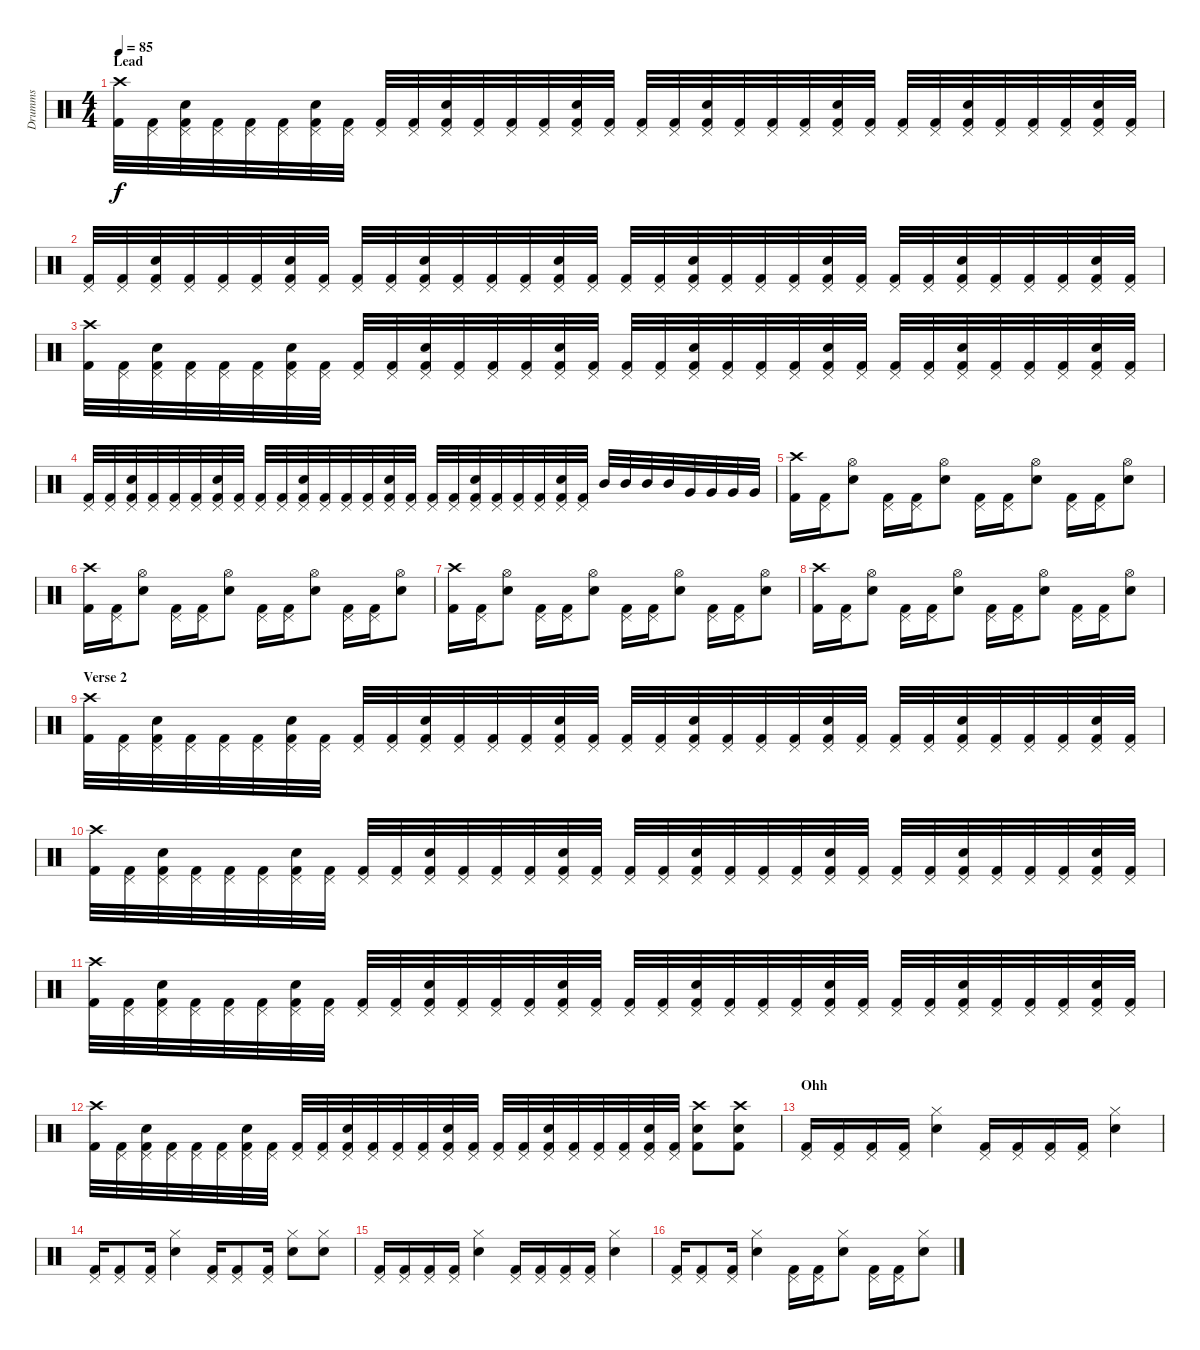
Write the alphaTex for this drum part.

\track ("Drumms" "Drumms") {instrument percussion}
\staff {score}
\articulation defaults
\ts (4 4)
\section ("" "Lead")
\tempo 85
\clef neutral
\ks c
("Crash high (hit)" "Kick (hit) 2").32{dy f} ("Pedal Hi-Hat (hit)" "Kick (hit) 2").32 ("Pedal Hi-Hat (hit)" "Snare (hit) 2" "Kick (hit) 2").32 ("Pedal Hi-Hat (hit)" "Kick (hit) 2").32 ("Pedal Hi-Hat (hit)" "Kick (hit) 2").32 ("Pedal Hi-Hat (hit)" "Kick (hit) 2").32 ("Pedal Hi-Hat (hit)" "Snare (hit) 2" "Kick (hit) 2").32 ("Pedal Hi-Hat (hit)" "Kick (hit) 2").32 ("Pedal Hi-Hat (hit)" "Kick (hit) 2").32 ("Pedal Hi-Hat (hit)" "Kick (hit) 2").32 ("Pedal Hi-Hat (hit)" "Snare (hit) 2" "Kick (hit) 2").32 ("Pedal Hi-Hat (hit)" "Kick (hit) 2").32 ("Pedal Hi-Hat (hit)" "Kick (hit) 2").32 ("Pedal Hi-Hat (hit)" "Kick (hit) 2").32 ("Pedal Hi-Hat (hit)" "Snare (hit) 2" "Kick (hit) 2").32 ("Pedal Hi-Hat (hit)" "Kick (hit) 2").32 ("Pedal Hi-Hat (hit)" "Kick (hit) 2").32 ("Pedal Hi-Hat (hit)" "Kick (hit) 2").32 ("Pedal Hi-Hat (hit)" "Snare (hit) 2" "Kick (hit) 2").32 ("Pedal Hi-Hat (hit)" "Kick (hit) 2").32 ("Pedal Hi-Hat (hit)" "Kick (hit) 2").32 ("Pedal Hi-Hat (hit)" "Kick (hit) 2").32 ("Pedal Hi-Hat (hit)" "Snare (hit) 2" "Kick (hit) 2").32 ("Pedal Hi-Hat (hit)" "Kick (hit) 2").32 ("Pedal Hi-Hat (hit)" "Kick (hit) 2").32 ("Pedal Hi-Hat (hit)" "Kick (hit) 2").32 ("Pedal Hi-Hat (hit)" "Snare (hit) 2" "Kick (hit) 2").32 ("Pedal Hi-Hat (hit)" "Kick (hit) 2").32 ("Pedal Hi-Hat (hit)" "Kick (hit) 2").32 ("Pedal Hi-Hat (hit)" "Kick (hit) 2").32 ("Pedal Hi-Hat (hit)" "Snare (hit) 2" "Kick (hit) 2").32 ("Pedal Hi-Hat (hit)" "Kick (hit) 2").32 |
("Pedal Hi-Hat (hit)" "Kick (hit) 2").32 ("Pedal Hi-Hat (hit)" "Kick (hit) 2").32 ("Pedal Hi-Hat (hit)" "Snare (hit) 2" "Kick (hit) 2").32 ("Pedal Hi-Hat (hit)" "Kick (hit) 2").32 ("Pedal Hi-Hat (hit)" "Kick (hit) 2").32 ("Pedal Hi-Hat (hit)" "Kick (hit) 2").32 ("Pedal Hi-Hat (hit)" "Snare (hit) 2" "Kick (hit) 2").32 ("Pedal Hi-Hat (hit)" "Kick (hit) 2").32 ("Pedal Hi-Hat (hit)" "Kick (hit) 2").32 ("Pedal Hi-Hat (hit)" "Kick (hit) 2").32 ("Pedal Hi-Hat (hit)" "Snare (hit) 2" "Kick (hit) 2").32 ("Pedal Hi-Hat (hit)" "Kick (hit) 2").32 ("Pedal Hi-Hat (hit)" "Kick (hit) 2").32 ("Pedal Hi-Hat (hit)" "Kick (hit) 2").32 ("Pedal Hi-Hat (hit)" "Snare (hit) 2" "Kick (hit) 2").32 ("Pedal Hi-Hat (hit)" "Kick (hit) 2").32 ("Pedal Hi-Hat (hit)" "Kick (hit) 2").32 ("Pedal Hi-Hat (hit)" "Kick (hit) 2").32 ("Pedal Hi-Hat (hit)" "Snare (hit) 2" "Kick (hit) 2").32 ("Pedal Hi-Hat (hit)" "Kick (hit) 2").32 ("Pedal Hi-Hat (hit)" "Kick (hit) 2").32 ("Pedal Hi-Hat (hit)" "Kick (hit) 2").32 ("Pedal Hi-Hat (hit)" "Snare (hit) 2" "Kick (hit) 2").32 ("Pedal Hi-Hat (hit)" "Kick (hit) 2").32 ("Pedal Hi-Hat (hit)" "Kick (hit) 2").32 ("Pedal Hi-Hat (hit)" "Kick (hit) 2").32 ("Pedal Hi-Hat (hit)" "Snare (hit) 2" "Kick (hit) 2").32 ("Pedal Hi-Hat (hit)" "Kick (hit) 2").32 ("Pedal Hi-Hat (hit)" "Kick (hit) 2").32 ("Pedal Hi-Hat (hit)" "Kick (hit) 2").32 ("Pedal Hi-Hat (hit)" "Snare (hit) 2" "Kick (hit) 2").32 ("Pedal Hi-Hat (hit)" "Kick (hit) 2").32 |
("Crash high (hit)" "Kick (hit) 2").32 ("Pedal Hi-Hat (hit)" "Kick (hit) 2").32 ("Pedal Hi-Hat (hit)" "Snare (hit) 2" "Kick (hit) 2").32 ("Pedal Hi-Hat (hit)" "Kick (hit) 2").32 ("Pedal Hi-Hat (hit)" "Kick (hit) 2").32 ("Pedal Hi-Hat (hit)" "Kick (hit) 2").32 ("Pedal Hi-Hat (hit)" "Snare (hit) 2" "Kick (hit) 2").32 ("Pedal Hi-Hat (hit)" "Kick (hit) 2").32 ("Pedal Hi-Hat (hit)" "Kick (hit) 2").32 ("Pedal Hi-Hat (hit)" "Kick (hit) 2").32 ("Pedal Hi-Hat (hit)" "Snare (hit) 2" "Kick (hit) 2").32 ("Pedal Hi-Hat (hit)" "Kick (hit) 2").32 ("Pedal Hi-Hat (hit)" "Kick (hit) 2").32 ("Pedal Hi-Hat (hit)" "Kick (hit) 2").32 ("Pedal Hi-Hat (hit)" "Snare (hit) 2" "Kick (hit) 2").32 ("Pedal Hi-Hat (hit)" "Kick (hit) 2").32 ("Pedal Hi-Hat (hit)" "Kick (hit) 2").32 ("Pedal Hi-Hat (hit)" "Kick (hit) 2").32 ("Pedal Hi-Hat (hit)" "Snare (hit) 2" "Kick (hit) 2").32 ("Pedal Hi-Hat (hit)" "Kick (hit) 2").32 ("Pedal Hi-Hat (hit)" "Kick (hit) 2").32 ("Pedal Hi-Hat (hit)" "Kick (hit) 2").32 ("Pedal Hi-Hat (hit)" "Snare (hit) 2" "Kick (hit) 2").32 ("Pedal Hi-Hat (hit)" "Kick (hit) 2").32 ("Pedal Hi-Hat (hit)" "Kick (hit) 2").32 ("Pedal Hi-Hat (hit)" "Kick (hit) 2").32 ("Pedal Hi-Hat (hit)" "Snare (hit) 2" "Kick (hit) 2").32 ("Pedal Hi-Hat (hit)" "Kick (hit) 2").32 ("Pedal Hi-Hat (hit)" "Kick (hit) 2").32 ("Pedal Hi-Hat (hit)" "Kick (hit) 2").32 ("Pedal Hi-Hat (hit)" "Snare (hit) 2" "Kick (hit) 2").32 ("Pedal Hi-Hat (hit)" "Kick (hit) 2").32 |
("Pedal Hi-Hat (hit)" "Kick (hit) 2").32 ("Pedal Hi-Hat (hit)" "Kick (hit) 2").32 ("Pedal Hi-Hat (hit)" "Snare (hit) 2" "Kick (hit) 2").32 ("Pedal Hi-Hat (hit)" "Kick (hit) 2").32 ("Pedal Hi-Hat (hit)" "Kick (hit) 2").32 ("Pedal Hi-Hat (hit)" "Kick (hit) 2").32 ("Pedal Hi-Hat (hit)" "Snare (hit) 2" "Kick (hit) 2").32 ("Pedal Hi-Hat (hit)" "Kick (hit) 2").32 ("Pedal Hi-Hat (hit)" "Kick (hit) 2").32 ("Pedal Hi-Hat (hit)" "Kick (hit) 2").32 ("Pedal Hi-Hat (hit)" "Snare (hit) 2" "Kick (hit) 2").32 ("Pedal Hi-Hat (hit)" "Kick (hit) 2").32 ("Pedal Hi-Hat (hit)" "Kick (hit) 2").32 ("Pedal Hi-Hat (hit)" "Kick (hit) 2").32 ("Pedal Hi-Hat (hit)" "Snare (hit) 2" "Kick (hit) 2").32 ("Pedal Hi-Hat (hit)" "Kick (hit) 2").32 ("Pedal Hi-Hat (hit)" "Kick (hit) 2").32 ("Pedal Hi-Hat (hit)" "Kick (hit) 2").32 ("Pedal Hi-Hat (hit)" "Snare (hit) 2" "Kick (hit) 2").32 ("Pedal Hi-Hat (hit)" "Kick (hit) 2").32 ("Pedal Hi-Hat (hit)" "Kick (hit) 2").32 ("Pedal Hi-Hat (hit)" "Kick (hit) 2").32 ("Pedal Hi-Hat (hit)" "Snare (hit) 2" "Kick (hit) 2").32 ("Pedal Hi-Hat (hit)" "Kick (hit) 2").32 "Mid Tom (hit)".32 "Mid Tom (hit)".32 "Mid Tom (hit)".32 "Mid Tom (hit)".32 "Very Low Tom (hit)".32 "Very Low Tom (hit)".32 "Very Low Tom (hit)".32 "Very Low Tom (hit)".32 |
("Crash high (hit)" "Kick (hit) 2").16 ("Pedal Hi-Hat (hit)" "Kick (hit) 2").16 ("Hi-Hat (open)" "Snare (hit) 2").8 ("Pedal Hi-Hat (hit)" "Kick (hit) 2").16 ("Pedal Hi-Hat (hit)" "Kick (hit) 2").16 ("Hi-Hat (open)" "Snare (hit) 2").8 ("Pedal Hi-Hat (hit)" "Kick (hit) 2").16 ("Pedal Hi-Hat (hit)" "Kick (hit) 2").16 ("Hi-Hat (open)" "Snare (hit) 2").8 ("Pedal Hi-Hat (hit)" "Kick (hit) 2").16 ("Pedal Hi-Hat (hit)" "Kick (hit) 2").16 ("Hi-Hat (open)" "Snare (hit) 2").8 |
("Crash high (hit)" "Kick (hit) 2").16 ("Pedal Hi-Hat (hit)" "Kick (hit) 2").16 ("Hi-Hat (open)" "Snare (hit) 2").8 ("Pedal Hi-Hat (hit)" "Kick (hit) 2").16 ("Pedal Hi-Hat (hit)" "Kick (hit) 2").16 ("Hi-Hat (open)" "Snare (hit) 2").8 ("Pedal Hi-Hat (hit)" "Kick (hit) 2").16 ("Pedal Hi-Hat (hit)" "Kick (hit) 2").16 ("Hi-Hat (open)" "Snare (hit) 2").8 ("Pedal Hi-Hat (hit)" "Kick (hit) 2").16 ("Pedal Hi-Hat (hit)" "Kick (hit) 2").16 ("Hi-Hat (open)" "Snare (hit) 2").8 |
("Crash high (hit)" "Kick (hit) 2").16 ("Pedal Hi-Hat (hit)" "Kick (hit) 2").16 ("Hi-Hat (open)" "Snare (hit) 2").8 ("Pedal Hi-Hat (hit)" "Kick (hit) 2").16 ("Pedal Hi-Hat (hit)" "Kick (hit) 2").16 ("Hi-Hat (open)" "Snare (hit) 2").8 ("Pedal Hi-Hat (hit)" "Kick (hit) 2").16 ("Pedal Hi-Hat (hit)" "Kick (hit) 2").16 ("Hi-Hat (open)" "Snare (hit) 2").8 ("Pedal Hi-Hat (hit)" "Kick (hit) 2").16 ("Pedal Hi-Hat (hit)" "Kick (hit) 2").16 ("Hi-Hat (open)" "Snare (hit) 2").8 |
("Crash high (hit)" "Kick (hit) 2").16 ("Pedal Hi-Hat (hit)" "Kick (hit) 2").16 ("Hi-Hat (open)" "Snare (hit) 2").8 ("Pedal Hi-Hat (hit)" "Kick (hit) 2").16 ("Pedal Hi-Hat (hit)" "Kick (hit) 2").16 ("Hi-Hat (open)" "Snare (hit) 2").8 ("Pedal Hi-Hat (hit)" "Kick (hit) 2").16 ("Pedal Hi-Hat (hit)" "Kick (hit) 2").16 ("Hi-Hat (open)" "Snare (hit) 2").8 ("Pedal Hi-Hat (hit)" "Kick (hit) 2").16 ("Pedal Hi-Hat (hit)" "Kick (hit) 2").16 ("Hi-Hat (open)" "Snare (hit) 2").8 |
\section ("" "Verse 2")
("Crash high (hit)" "Kick (hit) 2").32 ("Pedal Hi-Hat (hit)" "Kick (hit) 2").32 ("Pedal Hi-Hat (hit)" "Snare (hit) 2" "Kick (hit) 2").32 ("Pedal Hi-Hat (hit)" "Kick (hit) 2").32 ("Pedal Hi-Hat (hit)" "Kick (hit) 2").32 ("Pedal Hi-Hat (hit)" "Kick (hit) 2").32 ("Pedal Hi-Hat (hit)" "Snare (hit) 2" "Kick (hit) 2").32 ("Pedal Hi-Hat (hit)" "Kick (hit) 2").32 ("Pedal Hi-Hat (hit)" "Kick (hit) 2").32 ("Pedal Hi-Hat (hit)" "Kick (hit) 2").32 ("Pedal Hi-Hat (hit)" "Snare (hit) 2" "Kick (hit) 2").32 ("Pedal Hi-Hat (hit)" "Kick (hit) 2").32 ("Pedal Hi-Hat (hit)" "Kick (hit) 2").32 ("Pedal Hi-Hat (hit)" "Kick (hit) 2").32 ("Pedal Hi-Hat (hit)" "Snare (hit) 2" "Kick (hit) 2").32 ("Pedal Hi-Hat (hit)" "Kick (hit) 2").32 ("Pedal Hi-Hat (hit)" "Kick (hit) 2").32 ("Pedal Hi-Hat (hit)" "Kick (hit) 2").32 ("Pedal Hi-Hat (hit)" "Snare (hit) 2" "Kick (hit) 2").32 ("Pedal Hi-Hat (hit)" "Kick (hit) 2").32 ("Pedal Hi-Hat (hit)" "Kick (hit) 2").32 ("Pedal Hi-Hat (hit)" "Kick (hit) 2").32 ("Pedal Hi-Hat (hit)" "Snare (hit) 2" "Kick (hit) 2").32 ("Pedal Hi-Hat (hit)" "Kick (hit) 2").32 ("Pedal Hi-Hat (hit)" "Kick (hit) 2").32 ("Pedal Hi-Hat (hit)" "Kick (hit) 2").32 ("Pedal Hi-Hat (hit)" "Snare (hit) 2" "Kick (hit) 2").32 ("Pedal Hi-Hat (hit)" "Kick (hit) 2").32 ("Pedal Hi-Hat (hit)" "Kick (hit) 2").32 ("Pedal Hi-Hat (hit)" "Kick (hit) 2").32 ("Pedal Hi-Hat (hit)" "Snare (hit) 2" "Kick (hit) 2").32 ("Pedal Hi-Hat (hit)" "Kick (hit) 2").32 |
("Crash high (hit)" "Kick (hit) 2").32 ("Pedal Hi-Hat (hit)" "Kick (hit) 2").32 ("Pedal Hi-Hat (hit)" "Snare (hit) 2" "Kick (hit) 2").32 ("Pedal Hi-Hat (hit)" "Kick (hit) 2").32 ("Pedal Hi-Hat (hit)" "Kick (hit) 2").32 ("Pedal Hi-Hat (hit)" "Kick (hit) 2").32 ("Pedal Hi-Hat (hit)" "Snare (hit) 2" "Kick (hit) 2").32 ("Pedal Hi-Hat (hit)" "Kick (hit) 2").32 ("Pedal Hi-Hat (hit)" "Kick (hit) 2").32 ("Pedal Hi-Hat (hit)" "Kick (hit) 2").32 ("Pedal Hi-Hat (hit)" "Snare (hit) 2" "Kick (hit) 2").32 ("Pedal Hi-Hat (hit)" "Kick (hit) 2").32 ("Pedal Hi-Hat (hit)" "Kick (hit) 2").32 ("Pedal Hi-Hat (hit)" "Kick (hit) 2").32 ("Pedal Hi-Hat (hit)" "Snare (hit) 2" "Kick (hit) 2").32 ("Pedal Hi-Hat (hit)" "Kick (hit) 2").32 ("Pedal Hi-Hat (hit)" "Kick (hit) 2").32 ("Pedal Hi-Hat (hit)" "Kick (hit) 2").32 ("Pedal Hi-Hat (hit)" "Snare (hit) 2" "Kick (hit) 2").32 ("Pedal Hi-Hat (hit)" "Kick (hit) 2").32 ("Pedal Hi-Hat (hit)" "Kick (hit) 2").32 ("Pedal Hi-Hat (hit)" "Kick (hit) 2").32 ("Pedal Hi-Hat (hit)" "Snare (hit) 2" "Kick (hit) 2").32 ("Pedal Hi-Hat (hit)" "Kick (hit) 2").32 ("Pedal Hi-Hat (hit)" "Kick (hit) 2").32 ("Pedal Hi-Hat (hit)" "Kick (hit) 2").32 ("Pedal Hi-Hat (hit)" "Snare (hit) 2" "Kick (hit) 2").32 ("Pedal Hi-Hat (hit)" "Kick (hit) 2").32 ("Pedal Hi-Hat (hit)" "Kick (hit) 2").32 ("Pedal Hi-Hat (hit)" "Kick (hit) 2").32 ("Pedal Hi-Hat (hit)" "Snare (hit) 2" "Kick (hit) 2").32 ("Pedal Hi-Hat (hit)" "Kick (hit) 2").32 |
("Crash high (hit)" "Kick (hit) 2").32 ("Pedal Hi-Hat (hit)" "Kick (hit) 2").32 ("Pedal Hi-Hat (hit)" "Snare (hit) 2" "Kick (hit) 2").32 ("Pedal Hi-Hat (hit)" "Kick (hit) 2").32 ("Pedal Hi-Hat (hit)" "Kick (hit) 2").32 ("Pedal Hi-Hat (hit)" "Kick (hit) 2").32 ("Pedal Hi-Hat (hit)" "Snare (hit) 2" "Kick (hit) 2").32 ("Pedal Hi-Hat (hit)" "Kick (hit) 2").32 ("Pedal Hi-Hat (hit)" "Kick (hit) 2").32 ("Pedal Hi-Hat (hit)" "Kick (hit) 2").32 ("Pedal Hi-Hat (hit)" "Snare (hit) 2" "Kick (hit) 2").32 ("Pedal Hi-Hat (hit)" "Kick (hit) 2").32 ("Pedal Hi-Hat (hit)" "Kick (hit) 2").32 ("Pedal Hi-Hat (hit)" "Kick (hit) 2").32 ("Pedal Hi-Hat (hit)" "Snare (hit) 2" "Kick (hit) 2").32 ("Pedal Hi-Hat (hit)" "Kick (hit) 2").32 ("Pedal Hi-Hat (hit)" "Kick (hit) 2").32 ("Pedal Hi-Hat (hit)" "Kick (hit) 2").32 ("Pedal Hi-Hat (hit)" "Snare (hit) 2" "Kick (hit) 2").32 ("Pedal Hi-Hat (hit)" "Kick (hit) 2").32 ("Pedal Hi-Hat (hit)" "Kick (hit) 2").32 ("Pedal Hi-Hat (hit)" "Kick (hit) 2").32 ("Pedal Hi-Hat (hit)" "Snare (hit) 2" "Kick (hit) 2").32 ("Pedal Hi-Hat (hit)" "Kick (hit) 2").32 ("Pedal Hi-Hat (hit)" "Kick (hit) 2").32 ("Pedal Hi-Hat (hit)" "Kick (hit) 2").32 ("Pedal Hi-Hat (hit)" "Snare (hit) 2" "Kick (hit) 2").32 ("Pedal Hi-Hat (hit)" "Kick (hit) 2").32 ("Pedal Hi-Hat (hit)" "Kick (hit) 2").32 ("Pedal Hi-Hat (hit)" "Kick (hit) 2").32 ("Pedal Hi-Hat (hit)" "Snare (hit) 2" "Kick (hit) 2").32 ("Pedal Hi-Hat (hit)" "Kick (hit) 2").32 |
("Crash high (hit)" "Kick (hit) 2").32 ("Pedal Hi-Hat (hit)" "Kick (hit) 2").32 ("Pedal Hi-Hat (hit)" "Snare (hit) 2" "Kick (hit) 2").32 ("Pedal Hi-Hat (hit)" "Kick (hit) 2").32 ("Pedal Hi-Hat (hit)" "Kick (hit) 2").32 ("Pedal Hi-Hat (hit)" "Kick (hit) 2").32 ("Pedal Hi-Hat (hit)" "Snare (hit) 2" "Kick (hit) 2").32 ("Pedal Hi-Hat (hit)" "Kick (hit) 2").32 ("Pedal Hi-Hat (hit)" "Kick (hit) 2").32 ("Pedal Hi-Hat (hit)" "Kick (hit) 2").32 ("Pedal Hi-Hat (hit)" "Snare (hit) 2" "Kick (hit) 2").32 ("Pedal Hi-Hat (hit)" "Kick (hit) 2").32 ("Pedal Hi-Hat (hit)" "Kick (hit) 2").32 ("Pedal Hi-Hat (hit)" "Kick (hit) 2").32 ("Pedal Hi-Hat (hit)" "Snare (hit) 2" "Kick (hit) 2").32 ("Pedal Hi-Hat (hit)" "Kick (hit) 2").32 ("Pedal Hi-Hat (hit)" "Kick (hit) 2").32 ("Pedal Hi-Hat (hit)" "Kick (hit) 2").32 ("Pedal Hi-Hat (hit)" "Snare (hit) 2" "Kick (hit) 2").32 ("Pedal Hi-Hat (hit)" "Kick (hit) 2").32 ("Pedal Hi-Hat (hit)" "Kick (hit) 2").32 ("Pedal Hi-Hat (hit)" "Kick (hit) 2").32 ("Pedal Hi-Hat (hit)" "Snare (hit) 2" "Kick (hit) 2").32 ("Pedal Hi-Hat (hit)" "Kick (hit) 2").32 ("Crash high (hit)" "Snare (hit) 2" "Kick (hit) 2").8 ("Crash high (hit)" "Snare (hit) 2" "Kick (hit) 2").8 |
\section ("" "Ohh")
("Pedal Hi-Hat (hit)" "Kick (hit) 2").16 ("Pedal Hi-Hat (hit)" "Kick (hit) 2").16 ("Pedal Hi-Hat (hit)" "Kick (hit) 2").16 ("Pedal Hi-Hat (hit)" "Kick (hit) 2").16 ("Hi-Hat (closed)" "Snare (hit) 2").4 ("Pedal Hi-Hat (hit)" "Kick (hit) 2").16 ("Pedal Hi-Hat (hit)" "Kick (hit) 2").16 ("Pedal Hi-Hat (hit)" "Kick (hit) 2").16 ("Pedal Hi-Hat (hit)" "Kick (hit) 2").16 ("Hi-Hat (closed)" "Snare (hit) 2").4 |
("Pedal Hi-Hat (hit)" "Kick (hit) 2").16 ("Pedal Hi-Hat (hit)" "Kick (hit) 2").8 ("Pedal Hi-Hat (hit)" "Kick (hit) 2").16 ("Hi-Hat (closed)" "Snare (hit) 2").4 ("Pedal Hi-Hat (hit)" "Kick (hit) 2").16 ("Pedal Hi-Hat (hit)" "Kick (hit) 2").8 ("Pedal Hi-Hat (hit)" "Kick (hit) 2").16 ("Hi-Hat (closed)" "Snare (hit) 2").8 ("Hi-Hat (closed)" "Snare (hit) 2").8 |
("Pedal Hi-Hat (hit)" "Kick (hit) 2").16 ("Pedal Hi-Hat (hit)" "Kick (hit) 2").16 ("Pedal Hi-Hat (hit)" "Kick (hit) 2").16 ("Pedal Hi-Hat (hit)" "Kick (hit) 2").16 ("Hi-Hat (closed)" "Snare (hit) 2").4 ("Pedal Hi-Hat (hit)" "Kick (hit) 2").16 ("Pedal Hi-Hat (hit)" "Kick (hit) 2").16 ("Pedal Hi-Hat (hit)" "Kick (hit) 2").16 ("Pedal Hi-Hat (hit)" "Kick (hit) 2").16 ("Hi-Hat (closed)" "Snare (hit) 2").4 |
("Pedal Hi-Hat (hit)" "Kick (hit) 2").16 ("Pedal Hi-Hat (hit)" "Kick (hit) 2").8 ("Pedal Hi-Hat (hit)" "Kick (hit) 2").16 ("Hi-Hat (closed)" "Snare (hit) 2").4 ("Pedal Hi-Hat (hit)" "Kick (hit) 2").16 ("Pedal Hi-Hat (hit)" "Kick (hit) 2").16 ("Hi-Hat (closed)" "Snare (hit) 2").8 ("Pedal Hi-Hat (hit)" "Kick (hit) 2").16 ("Pedal Hi-Hat (hit)" "Kick (hit) 2").16 ("Hi-Hat (closed)" "Snare (hit) 2").8
